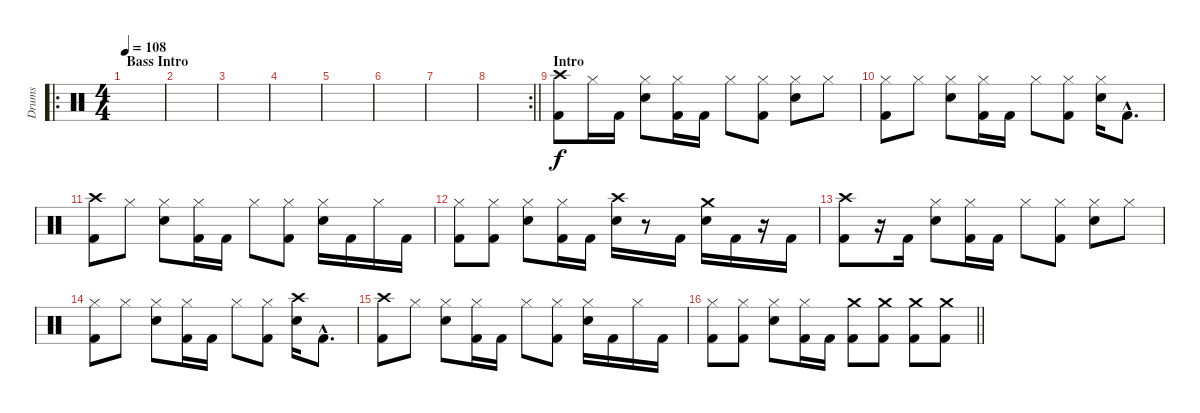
\track ("Drums" "Drums") {instrument percussion}
\staff {score}
\articulation defaults
\ro
\ts (4 4)
\section ("" "Bass Intro")
\tempo 108
\clef neutral
\ks c
|
|
|
|
|
|
|
\rc 2
\barLineRight lightlight
|
\section ("" "Intro")
("Crash high (hit)" "Kick (hit) 2").8 "Hi-Hat (closed)".16 "Kick (hit) 2".16 ("Hi-Hat (closed)" "Snare (hit) 2").8 ("Hi-Hat (closed)" "Kick (hit) 2").16 "Kick (hit) 2".16 "Hi-Hat (closed)".8 ("Hi-Hat (closed)" "Kick (hit) 2").8 ("Hi-Hat (closed)" "Snare (hit) 2").8 "Hi-Hat (closed)".8 |
("Hi-Hat (closed)" "Kick (hit) 2").8 "Hi-Hat (closed)".8 ("Hi-Hat (closed)" "Snare (hit) 2").8 ("Hi-Hat (closed)" "Kick (hit) 2").16 "Kick (hit) 2".16 "Hi-Hat (closed)".8 ("Hi-Hat (closed)" "Kick (hit) 2").8 ("Hi-Hat (closed)" "Snare (hit) 2").16 "Kick (hit) 2"{hac}.8{d} |
("Crash high (hit)" "Kick (hit) 2").8 "Hi-Hat (closed)".8 ("Hi-Hat (closed)" "Snare (hit) 2").8 ("Hi-Hat (closed)" "Kick (hit) 2").16 "Kick (hit) 2".16 "Hi-Hat (closed)".8 ("Hi-Hat (closed)" "Kick (hit) 2").8 ("Hi-Hat (closed)" "Snare (hit) 2").16 "Kick (hit) 2".16 "Hi-Hat (closed)".16 "Kick (hit) 2".16 |
("Hi-Hat (closed)" "Kick (hit) 2").8 ("Hi-Hat (closed)" "Kick (hit) 2").8 ("Hi-Hat (closed)" "Snare (hit) 2").8 ("Hi-Hat (closed)" "Kick (hit) 2").16 "Kick (hit) 2".16 ("Crash high (hit)" "Electric Snare (hit)").16 r.8 "Kick (hit) 2".16 ("Crash medium (hit)" "Snare (hit) 2").16 "Kick (hit) 2".16 r.16 "Kick (hit) 2".16 |
("Crash high (hit)" "Kick (hit) 2").8 r.16 "Kick (hit) 2".16 ("Hi-Hat (closed)" "Snare (hit) 2").8 ("Hi-Hat (closed)" "Kick (hit) 2").16 "Kick (hit) 2".16 "Hi-Hat (closed)".8 ("Hi-Hat (closed)" "Kick (hit) 2").8 ("Hi-Hat (closed)" "Snare (hit) 2").8 "Hi-Hat (closed)".8 |
("Hi-Hat (closed)" "Kick (hit) 2").8 "Hi-Hat (closed)".8 ("Hi-Hat (closed)" "Snare (hit) 2").8 ("Hi-Hat (closed)" "Kick (hit) 2").16 "Kick (hit) 2".16 "Hi-Hat (closed)".8 ("Hi-Hat (closed)" "Kick (hit) 2").8 ("Crash high (hit)" "Snare (hit) 2").16 "Kick (hit) 2"{hac}.8{d} |
("Crash high (hit)" "Kick (hit) 2").8 "Hi-Hat (closed)".8 ("Hi-Hat (closed)" "Snare (hit) 2").8 ("Hi-Hat (closed)" "Kick (hit) 2").16 "Kick (hit) 2".16 "Hi-Hat (closed)".8 ("Hi-Hat (closed)" "Kick (hit) 2").8 ("Hi-Hat (closed)" "Snare (hit) 2").16 "Kick (hit) 2".16 "Hi-Hat (closed)".16 "Kick (hit) 2".16 |
\barLineRight lightlight
("Hi-Hat (closed)" "Kick (hit) 2").8 ("Hi-Hat (closed)" "Kick (hit) 2").8 ("Hi-Hat (closed)" "Snare (hit) 2").8 ("Hi-Hat (closed)" "Kick (hit) 2").16 "Kick (hit) 2".16 ("Crash medium (hit)" "Kick (hit) 2").8 ("Crash medium (hit)" "Kick (hit) 2").8 ("Crash medium (hit)" "Kick (hit) 2").8 ("Crash medium (hit)" "Kick (hit) 2").8
